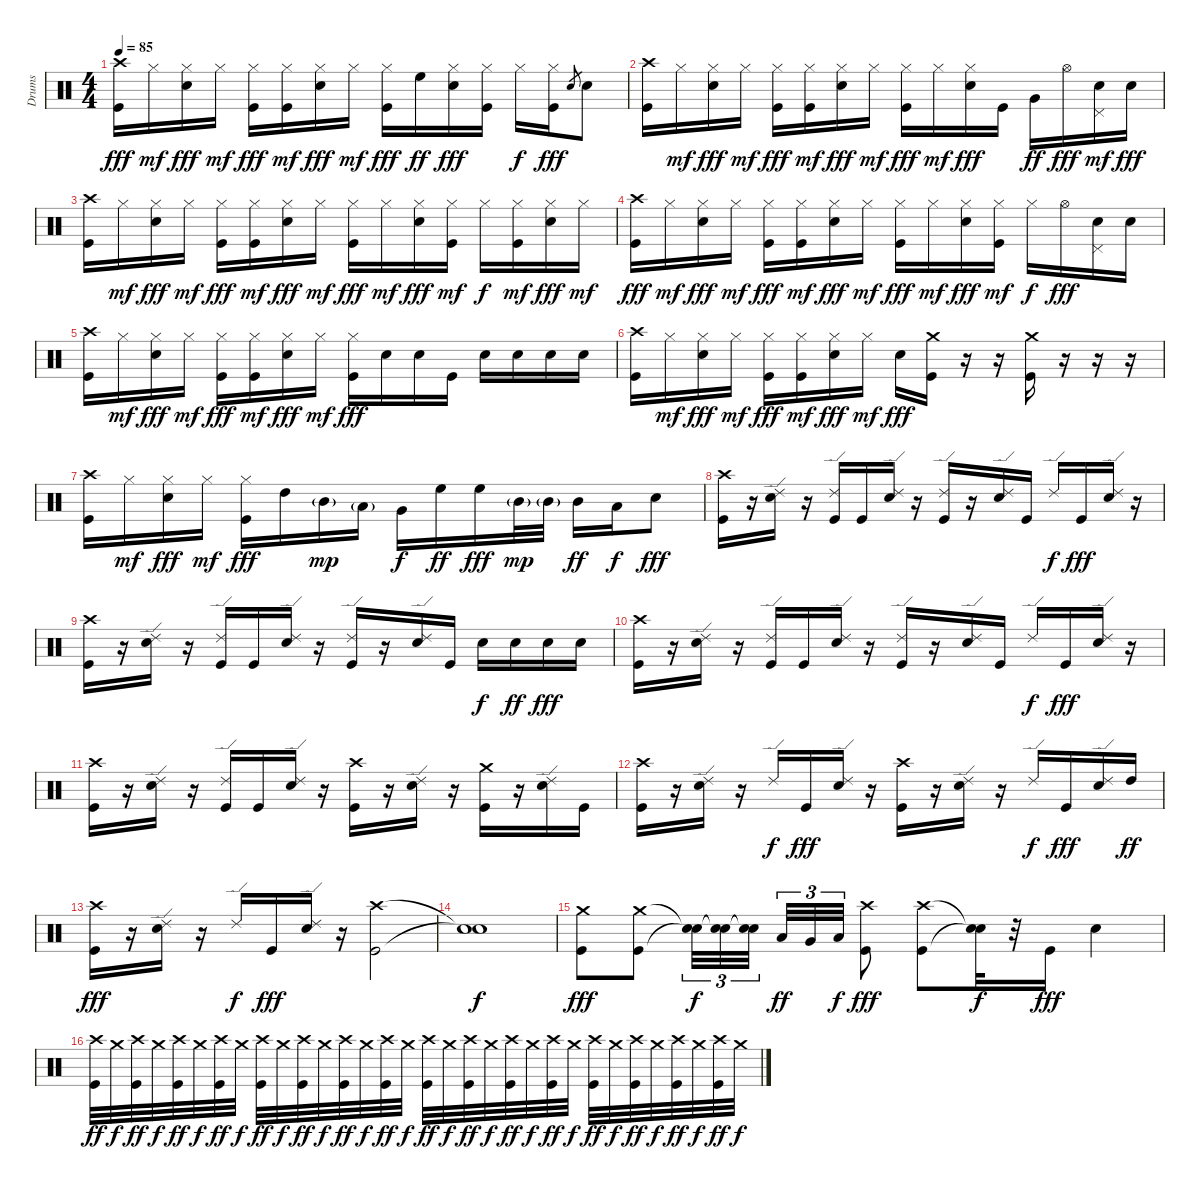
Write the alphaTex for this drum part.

\track ("Drums" "Drums") {instrument percussion}
\staff {score}
\articulation defaults
\ts (4 4)
\tempo 85
\clef neutral
\ks c
("Kick (hit)" "Crash high (hit)").16{dy fff} "Hi-Hat (closed)".16{dy mf} ("Electric Snare (hit)" "Hi-Hat (closed)").16{dy fff} "Hi-Hat (closed)".16{dy mf} ("Kick (hit)" "Hi-Hat (closed)").16{dy fff} ("Kick (hit)" "Hi-Hat (closed)").16{dy mf} ("Electric Snare (hit)" "Hi-Hat (closed)").16{dy fff} "Hi-Hat (closed)".16{dy mf} ("Kick (hit)" "Hi-Hat (closed)").16{dy fff} "High Floor Tom (hit)".16{dy ff} ("Electric Snare (hit)" "Hi-Hat (closed)").16{dy fff} ("Kick (hit)" "Hi-Hat (closed)").16 "Hi-Hat (closed)".16{dy f} ("Kick (hit)" "Hi-Hat (closed)").16{dy fff} "Electric Snare (hit)".8{gr} "Electric Snare (hit)".8 |
("Kick (hit)" "Crash high (hit)").16 "Hi-Hat (closed)".16{dy mf} ("Electric Snare (hit)" "Hi-Hat (closed)").16{dy fff} "Hi-Hat (closed)".16{dy mf} ("Kick (hit)" "Hi-Hat (closed)").16{dy fff} ("Kick (hit)" "Hi-Hat (closed)").16{dy mf} ("Electric Snare (hit)" "Hi-Hat (closed)").16{dy fff} "Hi-Hat (closed)".16{dy mf} ("Kick (hit)" "Hi-Hat (closed)").16{dy fff} "Hi-Hat (closed)".16{dy mf} ("Electric Snare (hit)" "Hi-Hat (closed)").16{dy fff} "Kick (hit)".16 "Very Low Tom (hit)".16{dy ff} "Hi-Hat (open)".16{dy fff} ("Electric Snare (hit)" "Pedal Hi-Hat (hit)").16{dy mf} "Electric Snare (hit)".16{dy fff} |
("Kick (hit)" "Crash high (hit)").16 "Hi-Hat (closed)".16{dy mf} ("Electric Snare (hit)" "Hi-Hat (closed)").16{dy fff} "Hi-Hat (closed)".16{dy mf} ("Kick (hit)" "Hi-Hat (closed)").16{dy fff} ("Kick (hit)" "Hi-Hat (closed)").16{dy mf} ("Electric Snare (hit)" "Hi-Hat (closed)").16{dy fff} "Hi-Hat (closed)".16{dy mf} ("Kick (hit)" "Hi-Hat (closed)").16{dy fff} "Hi-Hat (closed)".16{dy mf} ("Electric Snare (hit)" "Hi-Hat (closed)").16{dy fff} ("Kick (hit)" "Hi-Hat (closed)").16{dy mf} "Hi-Hat (closed)".16{dy f} ("Kick (hit)" "Hi-Hat (closed)").16{dy mf} ("Electric Snare (hit)" "Hi-Hat (closed)").16{dy fff} "Hi-Hat (closed)".16{dy mf} |
("Kick (hit)" "Crash high (hit)").16{dy fff} "Hi-Hat (closed)".16{dy mf} ("Electric Snare (hit)" "Hi-Hat (closed)").16{dy fff} "Hi-Hat (closed)".16{dy mf} ("Kick (hit)" "Hi-Hat (closed)").16{dy fff} ("Kick (hit)" "Hi-Hat (closed)").16{dy mf} ("Electric Snare (hit)" "Hi-Hat (closed)").16{dy fff} "Hi-Hat (closed)".16{dy mf} ("Kick (hit)" "Hi-Hat (closed)").16{dy fff} "Hi-Hat (closed)".16{dy mf} ("Electric Snare (hit)" "Hi-Hat (closed)").16{dy fff} ("Kick (hit)" "Hi-Hat (closed)").16{dy mf} "Hi-Hat (closed)".16{dy f} "Hi-Hat (open)".16{dy fff} ("Electric Snare (hit)" "Pedal Hi-Hat (hit)").16 "Electric Snare (hit)".16 |
("Kick (hit)" "Crash high (hit)").16 "Hi-Hat (closed)".16{dy mf} ("Electric Snare (hit)" "Hi-Hat (closed)").16{dy fff} "Hi-Hat (closed)".16{dy mf} ("Kick (hit)" "Hi-Hat (closed)").16{dy fff} ("Kick (hit)" "Hi-Hat (closed)").16{dy mf} ("Electric Snare (hit)" "Hi-Hat (closed)").16{dy fff} "Hi-Hat (closed)".16{dy mf} ("Kick (hit)" "Hi-Hat (closed)").16{dy fff} "Electric Snare (hit)".16 "Electric Snare (hit)".16 "Kick (hit)".16 "Electric Snare (hit)".16 "Electric Snare (hit)".16 "Electric Snare (hit)".16 "Electric Snare (hit)".16 |
("Kick (hit)" "Crash high (hit)").16 "Hi-Hat (closed)".16{dy mf} ("Electric Snare (hit)" "Hi-Hat (closed)").16{dy fff} "Hi-Hat (closed)".16{dy mf} ("Kick (hit)" "Hi-Hat (closed)").16{dy fff} ("Kick (hit)" "Hi-Hat (closed)").16{dy mf} ("Electric Snare (hit)" "Hi-Hat (closed)").16{dy fff} "Hi-Hat (closed)".16{dy mf} "Electric Snare (hit)".16{dy fff} ("Kick (hit)" "Crash medium (hit)").16 r.16 r.16 ("Kick (hit)" "Crash medium (hit)").16 r.16 r.16 r.16 |
("Kick (hit)" "Crash high (hit)").16 "Hi-Hat (closed)".16{dy mf} ("Electric Snare (hit)" "Hi-Hat (closed)").16{dy fff} "Hi-Hat (closed)".16{dy mf} ("Kick (hit)" "Hi-Hat (closed)").16{dy fff} "High Tom (hit)".16 "Mid Tom (hit)"{g}.16{dy mp} "Low Floor Tom (hit)"{g}.16 "Very Low Tom (hit)".16{dy f} "High Floor Tom (hit)".16{dy ff} "High Floor Tom (hit)".16{dy fff} "Mid Tom (hit)"{g}.32{dy mp} "Mid Tom (hit)"{g}.32 "Mid Tom (hit)".16{dy ff} "Low Floor Tom (hit)".16{dy f} "Electric Snare (hit)".8{dy fff} |
("Kick (hit)" "Crash high (hit)").16 r.16 ("Electric Snare (hit)" "Ride (edge) 2").16 r.16 ("Kick (hit)" "Ride (edge) 2").16 "Kick (hit)".16 ("Electric Snare (hit)" "Ride (edge) 2").16 r.16 ("Kick (hit)" "Ride (edge) 2").16 r.16 ("Electric Snare (hit)" "Ride (edge) 2").16 "Kick (hit)".16 "Ride (edge) 2".16{dy f} "Kick (hit)".16{dy fff} ("Electric Snare (hit)" "Ride (edge) 2").16 r.16 |
("Kick (hit)" "Crash high (hit)").16 r.16 ("Electric Snare (hit)" "Ride (edge) 2").16 r.16 ("Kick (hit)" "Ride (edge) 2").16 "Kick (hit)".16 ("Electric Snare (hit)" "Ride (edge) 2").16 r.16 ("Kick (hit)" "Ride (edge) 2").16 r.16 ("Electric Snare (hit)" "Ride (edge) 2").16 "Kick (hit)".16 "Electric Snare (hit)".16{dy f} "Electric Snare (hit)".16{dy ff} "Electric Snare (hit)".16{dy fff} "Electric Snare (hit)".16 |
("Kick (hit)" "Crash high (hit)").16 r.16 ("Electric Snare (hit)" "Ride (edge) 2").16 r.16 ("Kick (hit)" "Ride (edge) 2").16 "Kick (hit)".16 ("Electric Snare (hit)" "Ride (edge) 2").16 r.16 ("Kick (hit)" "Ride (edge) 2").16 r.16 ("Electric Snare (hit)" "Ride (edge) 2").16 "Kick (hit)".16 "Ride (edge) 2".16{dy f} "Kick (hit)".16{dy fff} ("Electric Snare (hit)" "Ride (edge) 2").16 r.16 |
("Kick (hit)" "Crash high (hit)").16 r.16 ("Electric Snare (hit)" "Ride (edge) 2").16 r.16 ("Kick (hit)" "Ride (edge) 2").16 "Kick (hit)".16 ("Electric Snare (hit)" "Ride (edge) 2").16 r.16 ("Kick (hit)" "Crash high (hit)").16 r.16 ("Electric Snare (hit)" "Ride (edge) 2").16 r.16 ("Kick (hit)" "Crash medium (hit)").16 r.16 ("Electric Snare (hit)" "Ride (edge) 2").16 "Kick (hit)".16 |
("Kick (hit)" "Crash high (hit)").16 r.16 ("Electric Snare (hit)" "Ride (edge) 2").16 r.16 "Ride (edge) 2".16{dy f} "Kick (hit)".16{dy fff} ("Electric Snare (hit)" "Ride (edge) 2").16 r.16 ("Kick (hit)" "Crash high (hit)").16 r.16 ("Electric Snare (hit)" "Ride (edge) 2").16 r.16 "Ride (edge) 2".16{dy f} "Kick (hit)".16{dy fff} ("Electric Snare (hit)" "Ride (edge) 2").16 "High Tom (hit)".16{dy ff} |
("Kick (hit)" "Crash high (hit)").16{dy fff} r.16 ("Electric Snare (hit)" "Ride (edge) 2").16 r.16 "Ride (edge) 2".16{dy f} "Kick (hit)".16{dy fff} ("Electric Snare (hit)" "Ride (edge) 2").16 r.16 ("Kick (hit)" "Crash high (hit)").2 |
("Snare (hit)"{t} "Snare (hit)"{t}).1{dy f} |
("Kick (hit)" "Crash medium (hit)").8{dy fff} ("Kick (hit)" "Crash medium (hit)").8 ("Snare (hit)"{t} "Snare (hit)"{t}).32{tu (3 2) dy f} ("Snare (hit)"{t} "Snare (hit)"{t}).32{tu (3 2)} ("Snare (hit)"{t} "Snare (hit)"{t}).32{tu (3 2)} "Low Tom (hit)".32{tu (3 2) dy ff} "Very Low Tom (hit)".32{tu (3 2)} "Low Floor Tom (hit)".32{tu (3 2) dy f} ("Kick (hit)" "Crash high (hit)").8{dy fff} ("Kick (hit)" "Crash high (hit)").8 ("Snare (hit)"{t} "Snare (hit)"{t}).32{dy f} r.32 "Kick (hit)".16{dy fff} "Electric Snare (hit)".4 |
("Kick (hit)" "Crash high (hit)").32{dy ff} "Crash medium (hit)".32{dy f} ("Kick (hit)" "Crash high (hit)").32{dy ff} "Crash medium (hit)".32{dy f} ("Kick (hit)" "Crash high (hit)").32{dy ff} "Crash medium (hit)".32{dy f} ("Kick (hit)" "Crash high (hit)").32{dy ff} "Crash medium (hit)".32{dy f} ("Kick (hit)" "Crash high (hit)").32{dy ff} "Crash medium (hit)".32{dy f} ("Kick (hit)" "Crash high (hit)").32{dy ff} "Crash medium (hit)".32{dy f} ("Kick (hit)" "Crash high (hit)").32{dy ff} "Crash medium (hit)".32{dy f} ("Kick (hit)" "Crash high (hit)").32{dy ff} "Crash medium (hit)".32{dy f} ("Kick (hit)" "Crash high (hit)").32{dy ff} "Crash medium (hit)".32{dy f} ("Kick (hit)" "Crash high (hit)").32{dy ff} "Crash medium (hit)".32{dy f} ("Kick (hit)" "Crash high (hit)").32{dy ff} "Crash medium (hit)".32{dy f} ("Kick (hit)" "Crash high (hit)").32{dy ff} "Crash medium (hit)".32{dy f} ("Kick (hit)" "Crash high (hit)").32{dy ff} "Crash medium (hit)".32{dy f} ("Kick (hit)" "Crash high (hit)").32{dy ff} "Crash medium (hit)".32{dy f} ("Kick (hit)" "Crash high (hit)").32{dy ff} "Crash medium (hit)".32{dy f} ("Kick (hit)" "Crash high (hit)").32{dy ff} "Crash medium (hit)".32{dy f}
